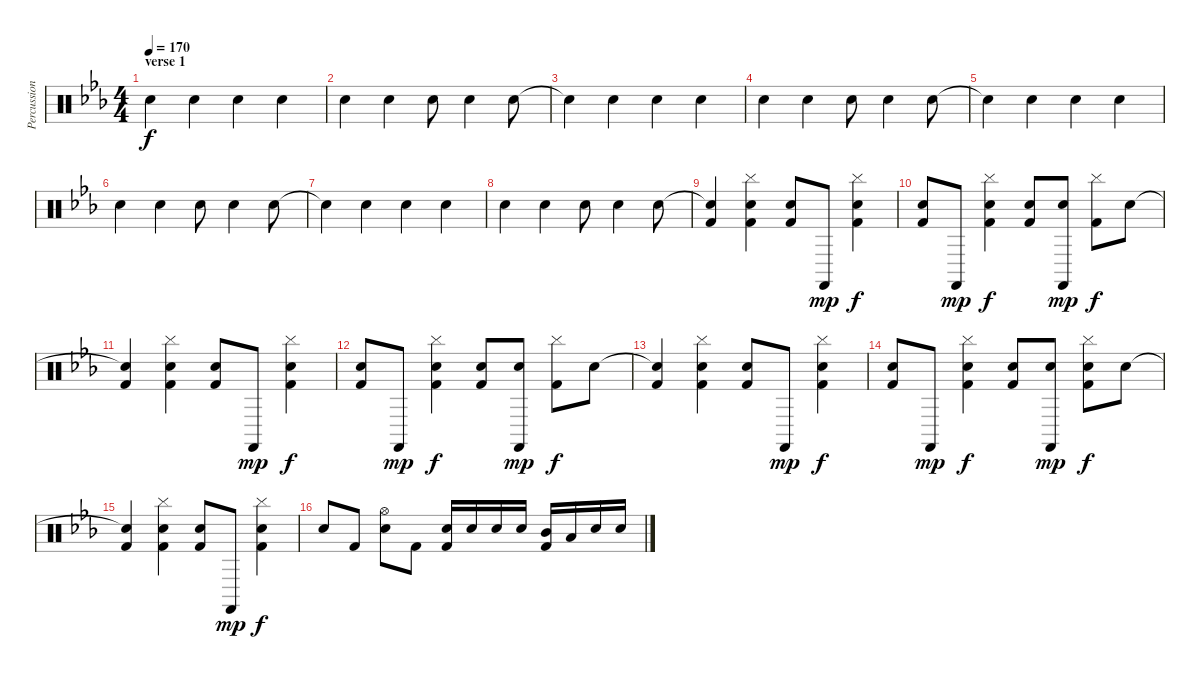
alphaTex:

\track ("Percussion" "Percussion") {instrument percussion}
\staff {score}
\articulation defaults
\ts (4 4)
\section ("" "verse 1")
\tempo 170
\clef neutral
\ks cminor "Hand Clap (hit)".4{dy f} "Hand Clap (hit)".4 "Hand Clap (hit)".4 "Hand Clap (hit)".4
|
"Hand Clap (hit)".4 "Hand Clap (hit)".4 "Hand Clap (hit)".8 "Hand Clap (hit)".4 "Hand Clap (hit)".8 |
"Snare (hit)"{t}.4 "Hand Clap (hit)".4 "Hand Clap (hit)".4 "Hand Clap (hit)".4 |
"Hand Clap (hit)".4 "Hand Clap (hit)".4 "Hand Clap (hit)".8 "Hand Clap (hit)".4 "Hand Clap (hit)".8 |
"Snare (hit)"{t}.4 "Hand Clap (hit)".4 "Hand Clap (hit)".4 "Hand Clap (hit)".4 |
"Hand Clap (hit)".4 "Hand Clap (hit)".4 "Hand Clap (hit)".8 "Hand Clap (hit)".4 "Hand Clap (hit)".8 |
"Snare (hit)"{t}.4 "Hand Clap (hit)".4 "Hand Clap (hit)".4 "Hand Clap (hit)".4 |
"Hand Clap (hit)".4 "Hand Clap (hit)".4 "Hand Clap (hit)".8 "Hand Clap (hit)".4 "Hand Clap (hit)".8 |
("Snare (hit)"{t} "Kick (hit) 2").4 ("Hand Clap (hit)" "Cymbal (hit)" "Kick (hit) 2").4 ("Hand Clap (hit)" "Kick (hit) 2").8 "Castanets (hit)".8{dy mp} ("Hand Clap (hit)" "Cymbal (hit)" "Kick (hit) 2").4{dy f} |
("Hand Clap (hit)" "Kick (hit) 2").8 "Castanets (hit)".8{dy mp} ("Hand Clap (hit)" "Cymbal (hit)" "Kick (hit) 2").4{dy f} ("Hand Clap (hit)" "Kick (hit) 2").8 ("Hand Clap (hit)" "Castanets (hit)").8{dy mp} ("Cymbal (hit)" "Kick (hit) 2").8{dy f} "Hand Clap (hit)".8 |
("Snare (hit)"{t} "Kick (hit) 2").4 ("Hand Clap (hit)" "Cymbal (hit)" "Kick (hit) 2").4 ("Hand Clap (hit)" "Kick (hit) 2").8 "Castanets (hit)".8{dy mp} ("Hand Clap (hit)" "Cymbal (hit)" "Kick (hit) 2").4{dy f} |
("Hand Clap (hit)" "Kick (hit) 2").8 "Castanets (hit)".8{dy mp} ("Hand Clap (hit)" "Cymbal (hit)" "Kick (hit) 2").4{dy f} ("Hand Clap (hit)" "Kick (hit) 2").8 ("Hand Clap (hit)" "Castanets (hit)").8{dy mp} ("Cymbal (hit)" "Kick (hit) 2").8{dy f} "Hand Clap (hit)".8 |
("Snare (hit)"{t} "Kick (hit) 2").4 ("Hand Clap (hit)" "Cymbal (hit)" "Kick (hit) 2").4 ("Hand Clap (hit)" "Kick (hit) 2").8 "Castanets (hit)".8{dy mp} ("Hand Clap (hit)" "Cymbal (hit)" "Kick (hit) 2").4{dy f} |
("Hand Clap (hit)" "Kick (hit) 2").8 "Castanets (hit)".8{dy mp} ("Hand Clap (hit)" "Cymbal (hit)" "Kick (hit) 2").4{dy f} ("Hand Clap (hit)" "Kick (hit) 2").8 ("Hand Clap (hit)" "Castanets (hit)").8{dy mp} ("Hand Clap (hit)" "Cymbal (hit)" "Kick (hit) 2").8{dy f} "Hand Clap (hit)".8 |
("Snare (hit)"{t} "Kick (hit) 2").4 ("Hand Clap (hit)" "Cymbal (hit)" "Kick (hit) 2").4 ("Hand Clap (hit)" "Kick (hit) 2").8 "Castanets (hit)".8{dy mp} ("Hand Clap (hit)" "Cymbal (hit)" "Kick (hit) 2").4{dy f} |
"Electric Snare (hit)".8 "Kick (hit) 2".8 ("Electric Snare (hit)" "Hi-Hat (open)").8 "Kick (hit) 2".8 ("Electric Snare (hit)" "Kick (hit) 2").16 "Electric Snare (hit)".16 "Electric Snare (hit)".16 "Electric Snare (hit)".16 ("Mid Tom (hit)" "Kick (hit) 2").16 "Low Tom (hit)".16 "Electric Snare (hit)".16 "Electric Snare (hit)".16
